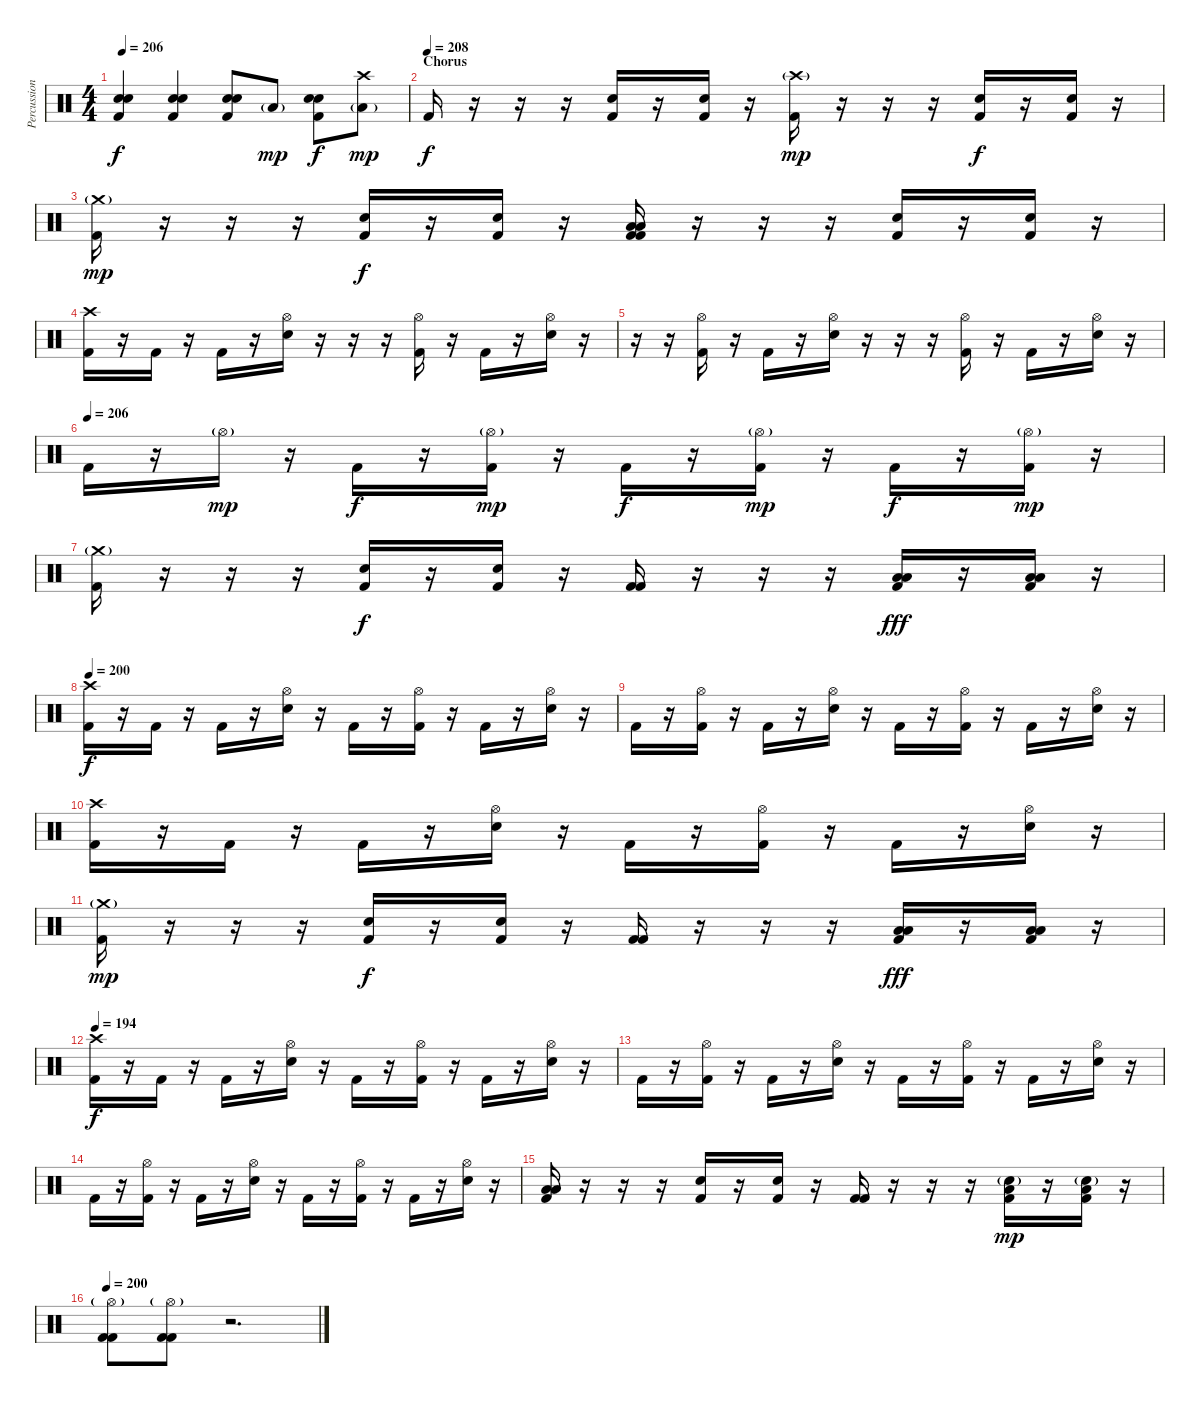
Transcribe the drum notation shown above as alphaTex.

\track ("Percussion" "Percussion") {instrument percussion}
\staff {score}
\articulation defaults
\ts (4 4)
\tempo 206
\clef neutral
\ks c
("Electric Snare (hit)" "Electric Snare (hit)" "Kick (hit) 2").4{dy f} ("Electric Snare (hit)" "Electric Snare (hit)" "Kick (hit) 2").4 ("Electric Snare (hit)" "Electric Snare (hit)" "Kick (hit) 2").8 "Low Tom (hit)"{g}.8{dy mp} ("Electric Snare (hit)" "Electric Snare (hit)" "Kick (hit) 2").8{dy f} ("Crash high (hit)" "Low Tom (hit)"{g}).8{dy mp} |
\section ("" "Chorus")
\tempo (208)
"Kick (hit) 2".16{dy f} r.16 r.16 r.16 ("Electric Snare (hit)" "Kick (hit) 2").16 r.16 ("Electric Snare (hit)" "Kick (hit) 2").16 r.16 ("Crash high (hit)"{g} "Kick (hit) 2").16{dy mp} r.16 r.16 r.16 ("Electric Snare (hit)" "Kick (hit) 2").16{dy f} r.16 ("Electric Snare (hit)" "Kick (hit) 2").16 r.16 |
("Crash medium (hit)"{g} "Kick (hit) 2").16{dy mp} r.16 r.16 r.16 ("Electric Snare (hit)" "Kick (hit) 2").16{dy f} r.16 ("Electric Snare (hit)" "Kick (hit) 2").16 r.16 ("Low Tom (hit)" "Low Tom (hit)" "Kick (hit) 2" "Kick (hit) 2").16 r.16 r.16 r.16 ("Electric Snare (hit)" "Kick (hit) 2").16 r.16 ("Electric Snare (hit)" "Kick (hit) 2").16 r.16 |
("Crash high (hit)" "Kick (hit) 2").16 r.16 "Kick (hit) 2".16 r.16 "Kick (hit) 2".16 r.16 ("Hi-Hat (open)" "Electric Snare (hit)").16 r.16 r.16 r.16 ("Hi-Hat (open)" "Kick (hit) 2").16 r.16 "Kick (hit) 2".16 r.16 ("Hi-Hat (open)" "Electric Snare (hit)").16 r.16 |
r.16 r.16 ("Hi-Hat (open)" "Kick (hit) 2").16 r.16 "Kick (hit) 2".16 r.16 ("Hi-Hat (open)" "Electric Snare (hit)").16 r.16 r.16 r.16 ("Hi-Hat (open)" "Kick (hit) 2").16 r.16 "Kick (hit) 2".16 r.16 ("Hi-Hat (open)" "Electric Snare (hit)").16 r.16 |
\tempo (206)
"Kick (hit) 2".16 r.16 "Hi-Hat (open)"{g}.16{dy mp} r.16 "Kick (hit) 2".16{dy f} r.16 ("Hi-Hat (open)"{g} "Kick (hit) 2").16{dy mp} r.16 "Kick (hit) 2".16{dy f} r.16 ("Hi-Hat (open)"{g} "Kick (hit) 2").16{dy mp} r.16 "Kick (hit) 2".16{dy f} r.16 ("Hi-Hat (open)"{g} "Kick (hit) 2").16{dy mp} r.16 |
("Crash medium (hit)"{g} "Kick (hit) 2").16 r.16 r.16 r.16 ("Electric Snare (hit)" "Kick (hit) 2").16{dy f} r.16 ("Electric Snare (hit)" "Kick (hit) 2").16 r.16 ("Kick (hit) 2" "Kick (hit) 2").16 r.16 r.16 r.16 ("Low Tom (hit)" "Low Tom (hit)" "Kick (hit) 2").16{dy fff} r.16 ("Low Tom (hit)" "Low Tom (hit)" "Kick (hit) 2").16 r.16 |
\tempo 200
("Crash high (hit)" "Kick (hit) 2").16{dy f} r.16 "Kick (hit) 2".16 r.16 "Kick (hit) 2".16 r.16 ("Hi-Hat (open)" "Electric Snare (hit)").16 r.16 "Kick (hit) 2".16 r.16 ("Hi-Hat (open)" "Kick (hit) 2").16 r.16 "Kick (hit) 2".16 r.16 ("Hi-Hat (open)" "Electric Snare (hit)").16 r.16 |
"Kick (hit) 2".16 r.16 ("Hi-Hat (open)" "Kick (hit) 2").16 r.16 "Kick (hit) 2".16 r.16 ("Hi-Hat (open)" "Electric Snare (hit)").16 r.16 "Kick (hit) 2".16 r.16 ("Hi-Hat (open)" "Kick (hit) 2").16 r.16 "Kick (hit) 2".16 r.16 ("Hi-Hat (open)" "Electric Snare (hit)").16 r.16 |
("Crash high (hit)" "Kick (hit) 2").16 r.16 "Kick (hit) 2".16 r.16 "Kick (hit) 2".16 r.16 ("Hi-Hat (open)" "Electric Snare (hit)").16 r.16 "Kick (hit) 2".16 r.16 ("Hi-Hat (open)" "Kick (hit) 2").16 r.16 "Kick (hit) 2".16 r.16 ("Hi-Hat (open)" "Electric Snare (hit)").16 r.16 |
("Crash medium (hit)"{g} "Kick (hit) 2").16{dy mp} r.16 r.16 r.16 ("Electric Snare (hit)" "Kick (hit) 2").16{dy f} r.16 ("Electric Snare (hit)" "Kick (hit) 2").16 r.16 ("Kick (hit) 2" "Kick (hit) 2").16 r.16 r.16 r.16 ("Low Tom (hit)" "Low Tom (hit)" "Kick (hit) 2").16{dy fff} r.16 ("Low Tom (hit)" "Low Tom (hit)" "Kick (hit) 2").16 r.16 |
\tempo 194
("Crash high (hit)" "Kick (hit) 2").16{dy f} r.16 "Kick (hit) 2".16 r.16 "Kick (hit) 2".16 r.16 ("Hi-Hat (open)" "Electric Snare (hit)").16 r.16 "Kick (hit) 2".16 r.16 ("Hi-Hat (open)" "Kick (hit) 2").16 r.16 "Kick (hit) 2".16 r.16 ("Hi-Hat (open)" "Electric Snare (hit)").16 r.16 |
"Kick (hit) 2".16 r.16 ("Hi-Hat (open)" "Kick (hit) 2").16 r.16 "Kick (hit) 2".16 r.16 ("Hi-Hat (open)" "Electric Snare (hit)").16 r.16 "Kick (hit) 2".16 r.16 ("Hi-Hat (open)" "Kick (hit) 2").16 r.16 "Kick (hit) 2".16 r.16 ("Hi-Hat (open)" "Electric Snare (hit)").16 r.16 |
"Kick (hit) 2".16 r.16 ("Hi-Hat (open)" "Kick (hit) 2").16 r.16 "Kick (hit) 2".16 r.16 ("Hi-Hat (open)" "Electric Snare (hit)").16 r.16 "Kick (hit) 2".16 r.16 ("Hi-Hat (open)" "Kick (hit) 2").16 r.16 "Kick (hit) 2".16 r.16 ("Hi-Hat (open)" "Electric Snare (hit)").16 r.16 |
("Low Tom (hit)" "Low Tom (hit)" "Kick (hit) 2").16 r.16 r.16 r.16 ("Electric Snare (hit)" "Kick (hit) 2").16 r.16 ("Electric Snare (hit)" "Kick (hit) 2").16 r.16 ("Kick (hit) 2" "Kick (hit) 2").16 r.16 r.16 r.16 ("Low Tom (hit)" "Electric Snare (hit)"{g} "Kick (hit) 2").16{dy mp} r.16 ("Low Tom (hit)" "Electric Snare (hit)"{g} "Kick (hit) 2").16 r.16 |
\tempo 200
("Hi-Hat (open)"{g} "Kick (hit) 2" "Kick (hit) 2").8 ("Hi-Hat (open)"{g} "Kick (hit) 2" "Kick (hit) 2").8 r.2{d}
